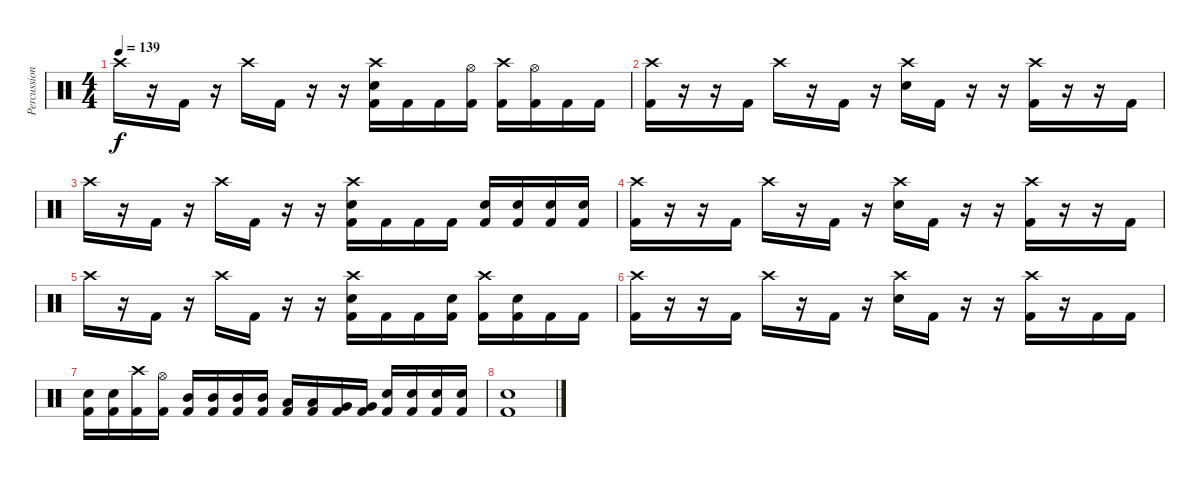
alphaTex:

\track ("Percussion" "Percussion") {instrument percussion}
\staff {score}
\articulation defaults
\ts (4 4)
\tempo 139
\clef neutral
\ks c "Crash high (hit)".16{dy f}
r.16 "Kick (hit) 2".16 r.16 "Crash high (hit)".16 "Kick (hit) 2".16 r.16 r.16 ("Kick (hit) 2" "Electric Snare (hit)" "Crash high (hit)").16 "Kick (hit) 2".16 "Kick (hit) 2".16 ("Kick (hit) 2" "Hi-Hat (open)").16 ("Kick (hit) 2" "Crash high (hit)").16 ("Kick (hit) 2" "Hi-Hat (open)").16 "Kick (hit) 2".16 "Kick (hit) 2".16 |
("Kick (hit) 2" "Crash high (hit)").16 r.16 r.16 "Kick (hit) 2".16 "Crash high (hit)".16 r.16 "Kick (hit) 2".16 r.16 ("Electric Snare (hit)" "Crash high (hit)").16 "Kick (hit) 2".16 r.16 r.16 ("Kick (hit) 2" "Crash high (hit)").16 r.16 r.16 "Kick (hit) 2".16 |
"Crash high (hit)".16 r.16 "Kick (hit) 2".16 r.16 "Crash high (hit)".16 "Kick (hit) 2".16 r.16 r.16 ("Kick (hit) 2" "Electric Snare (hit)" "Crash high (hit)").16 "Kick (hit) 2".16 "Kick (hit) 2".16 "Kick (hit) 2".16 ("Kick (hit) 2" "Electric Snare (hit)").16 ("Kick (hit) 2" "Electric Snare (hit)").16 ("Kick (hit) 2" "Electric Snare (hit)").16 ("Kick (hit) 2" "Electric Snare (hit)").16 |
("Kick (hit) 2" "Crash high (hit)").16 r.16 r.16 "Kick (hit) 2".16 "Crash high (hit)".16 r.16 "Kick (hit) 2".16 r.16 ("Electric Snare (hit)" "Crash high (hit)").16 "Kick (hit) 2".16 r.16 r.16 ("Kick (hit) 2" "Crash high (hit)").16 r.16 r.16 "Kick (hit) 2".16 |
"Crash high (hit)".16 r.16 "Kick (hit) 2".16 r.16 "Crash high (hit)".16 "Kick (hit) 2".16 r.16 r.16 ("Kick (hit) 2" "Electric Snare (hit)" "Crash high (hit)").16 "Kick (hit) 2".16 "Kick (hit) 2".16 ("Kick (hit) 2" "Electric Snare (hit)").16 ("Kick (hit) 2" "Crash high (hit)").16 ("Kick (hit) 2" "Electric Snare (hit)").16 "Kick (hit) 2".16 "Kick (hit) 2".16 |
("Kick (hit) 2" "Crash high (hit)").16 r.16 r.16 "Kick (hit) 2".16 "Crash high (hit)".16 r.16 "Kick (hit) 2".16 r.16 ("Electric Snare (hit)" "Crash high (hit)").16 "Kick (hit) 2".16 r.16 r.16 ("Kick (hit) 2" "Crash high (hit)").16 r.16 "Kick (hit) 2".16 "Kick (hit) 2".16 |
("Kick (hit) 2" "Electric Snare (hit)").16 ("Kick (hit) 2" "Electric Snare (hit)").16 ("Kick (hit) 2" "Crash high (hit)").16 ("Kick (hit) 2" "Hi-Hat (open)").16 ("Kick (hit) 2" "Mid Tom (hit)").16 ("Kick (hit) 2" "Mid Tom (hit)").16 ("Kick (hit) 2" "Mid Tom (hit)").16 ("Kick (hit) 2" "Mid Tom (hit)").16 ("Kick (hit) 2" "Low Tom (hit)").16 ("Kick (hit) 2" "Low Tom (hit)").16 ("Kick (hit) 2" "Very Low Tom (hit)").16 ("Kick (hit) 2" "Very Low Tom (hit)").16 ("Kick (hit) 2" "Electric Snare (hit)").16 ("Kick (hit) 2" "Electric Snare (hit)").16 ("Kick (hit) 2" "Electric Snare (hit)").16 ("Kick (hit) 2" "Electric Snare (hit)").16 |
("Kick (hit) 2" "Electric Snare (hit)").1
